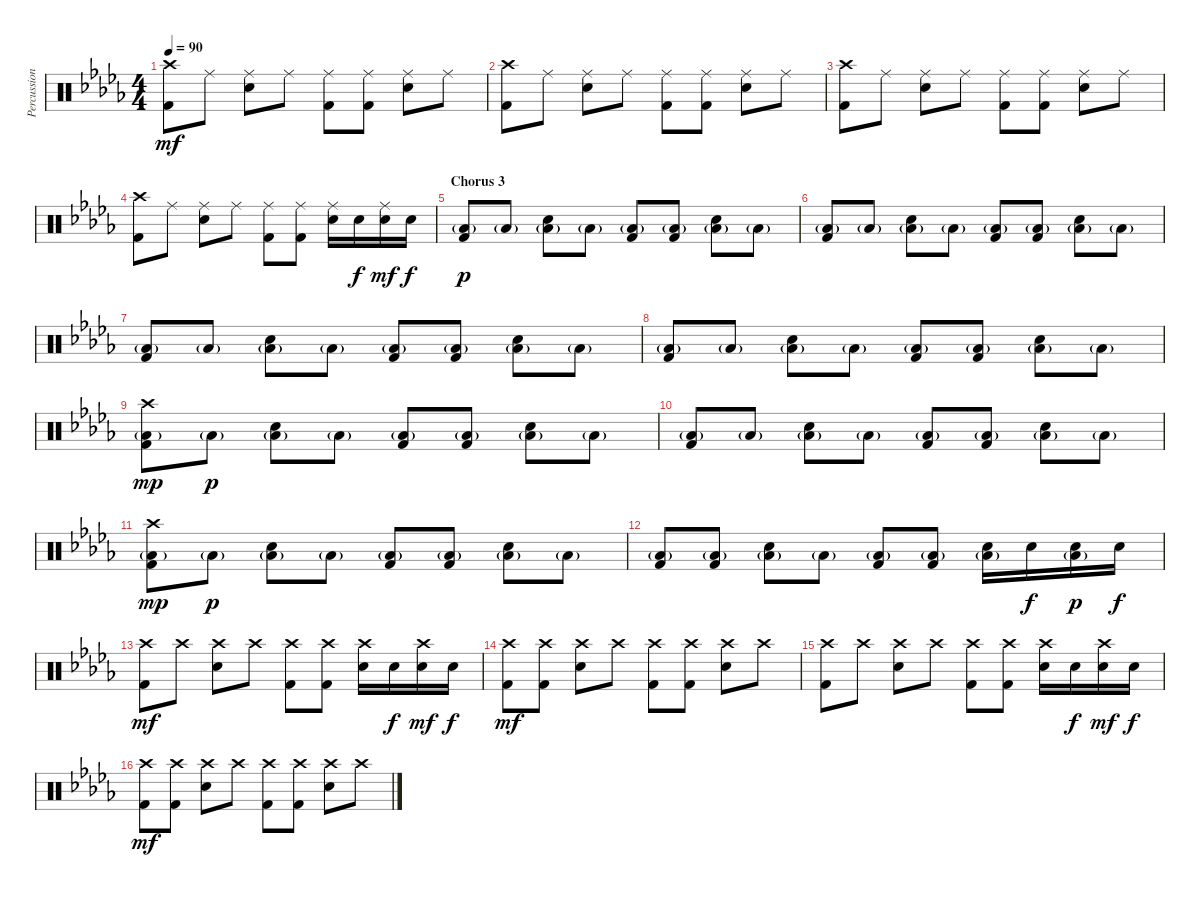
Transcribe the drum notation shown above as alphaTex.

\track ("Percussion" "Percussion") {instrument percussion}
\staff {score}
\articulation defaults
\ts (4 4)
\tempo 90
\clef neutral
\ks db
("Crash high (hit)" "Kick (hit) 2").8{dy mf} "Ride (middle)".8 ("Ride (middle)" "Snare (hit) 2").8 "Ride (middle)".8 ("Ride (middle)" "Kick (hit) 2").8 ("Ride (middle)" "Kick (hit) 2").8 ("Ride (middle)" "Snare (hit) 2").8 "Ride (middle)".8 |
("Crash high (hit)" "Kick (hit) 2").8 "Ride (middle)".8 ("Ride (middle)" "Snare (hit) 2").8 "Ride (middle)".8 ("Ride (middle)" "Kick (hit) 2").8 ("Ride (middle)" "Kick (hit) 2").8 ("Ride (middle)" "Snare (hit) 2").8 "Ride (middle)".8 |
("Crash high (hit)" "Kick (hit) 2").8 "Ride (middle)".8 ("Ride (middle)" "Snare (hit) 2").8 "Ride (middle)".8 ("Ride (middle)" "Kick (hit) 2").8 ("Ride (middle)" "Kick (hit) 2").8 ("Ride (middle)" "Snare (hit) 2").8 "Ride (middle)".8 |
("Crash high (hit)" "Kick (hit) 2").8 "Ride (middle)".8 ("Ride (middle)" "Snare (hit) 2").8 "Ride (middle)".8 ("Ride (middle)" "Kick (hit) 2").8 ("Ride (middle)" "Kick (hit) 2").8 ("Ride (middle)" "Snare (hit) 2").16 "Snare (hit) 2".16{dy f} ("Ride (middle)" "Snare (hit) 2").16{dy mf} "Snare (hit) 2".16{dy f} |
\section ("" "Chorus 3")
("Low Floor Tom (hit)"{g} "Kick (hit) 2").8{dy p} "Low Floor Tom (hit)"{g}.8 ("Low Floor Tom (hit)"{g} "Snare (hit) 2").8 "Low Floor Tom (hit)"{g}.8 ("Low Floor Tom (hit)"{g} "Kick (hit) 2").8 ("Low Floor Tom (hit)"{g} "Kick (hit) 2").8 ("Low Floor Tom (hit)"{g} "Snare (hit) 2").8 "Low Floor Tom (hit)"{g}.8 |
("Low Floor Tom (hit)"{g} "Kick (hit) 2").8 "Low Floor Tom (hit)"{g}.8 ("Low Floor Tom (hit)"{g} "Snare (hit) 2").8 "Low Floor Tom (hit)"{g}.8 ("Low Floor Tom (hit)"{g} "Kick (hit) 2").8 ("Low Floor Tom (hit)"{g} "Kick (hit) 2").8 ("Low Floor Tom (hit)"{g} "Snare (hit) 2").8 "Low Floor Tom (hit)"{g}.8 |
("Low Floor Tom (hit)"{g} "Kick (hit) 2").8 "Low Floor Tom (hit)"{g}.8 ("Low Floor Tom (hit)"{g} "Snare (hit) 2").8 "Low Floor Tom (hit)"{g}.8 ("Low Floor Tom (hit)"{g} "Kick (hit) 2").8 ("Low Floor Tom (hit)"{g} "Kick (hit) 2").8 ("Low Floor Tom (hit)"{g} "Snare (hit) 2").8 "Low Floor Tom (hit)"{g}.8 |
("Low Floor Tom (hit)"{g} "Kick (hit) 2").8 "Low Floor Tom (hit)"{g}.8 ("Low Floor Tom (hit)"{g} "Snare (hit) 2").8 "Low Floor Tom (hit)"{g}.8 ("Low Floor Tom (hit)"{g} "Kick (hit) 2").8 ("Low Floor Tom (hit)"{g} "Kick (hit) 2").8 ("Low Floor Tom (hit)"{g} "Snare (hit) 2").8 "Low Floor Tom (hit)"{g}.8 |
("Low Floor Tom (hit)"{g} "Crash high (hit)" "Kick (hit) 2").8{dy mp} "Low Floor Tom (hit)"{g}.8{dy p} ("Low Floor Tom (hit)"{g} "Snare (hit) 2").8 "Low Floor Tom (hit)"{g}.8 ("Low Floor Tom (hit)"{g} "Kick (hit) 2").8 ("Low Floor Tom (hit)"{g} "Kick (hit) 2").8 ("Low Floor Tom (hit)"{g} "Snare (hit) 2").8 "Low Floor Tom (hit)"{g}.8 |
("Low Floor Tom (hit)"{g} "Kick (hit) 2").8 "Low Floor Tom (hit)"{g}.8 ("Low Floor Tom (hit)"{g} "Snare (hit) 2").8 "Low Floor Tom (hit)"{g}.8 ("Low Floor Tom (hit)"{g} "Kick (hit) 2").8 ("Low Floor Tom (hit)"{g} "Kick (hit) 2").8 ("Low Floor Tom (hit)"{g} "Snare (hit) 2").8 "Low Floor Tom (hit)"{g}.8 |
("Low Floor Tom (hit)"{g} "Crash high (hit)" "Kick (hit) 2").8{dy mp} "Low Floor Tom (hit)"{g}.8{dy p} ("Low Floor Tom (hit)"{g} "Snare (hit) 2").8 "Low Floor Tom (hit)"{g}.8 ("Low Floor Tom (hit)"{g} "Kick (hit) 2").8 ("Low Floor Tom (hit)"{g} "Kick (hit) 2").8 ("Low Floor Tom (hit)"{g} "Snare (hit) 2").8 "Low Floor Tom (hit)"{g}.8 |
("Low Floor Tom (hit)"{g} "Kick (hit) 2").8 ("Low Floor Tom (hit)"{g} "Kick (hit) 2").8 ("Low Floor Tom (hit)"{g} "Snare (hit) 2").8 "Low Floor Tom (hit)"{g}.8 ("Low Floor Tom (hit)"{g} "Kick (hit) 2").8 ("Low Floor Tom (hit)"{g} "Kick (hit) 2").8 ("Low Floor Tom (hit)"{g} "Snare (hit) 2").16 "Snare (hit) 2".16{dy f} ("Low Floor Tom (hit)"{g} "Snare (hit) 2").16{dy p} "Snare (hit) 2".16{dy f} |
("Crash high (hit)" "Kick (hit) 2").8{dy mf} "Crash high (hit)".8 ("Crash high (hit)" "Snare (hit) 2").8 "Crash high (hit)".8 ("Crash high (hit)" "Kick (hit) 2").8 ("Crash high (hit)" "Kick (hit) 2").8 ("Crash high (hit)" "Snare (hit) 2").16 "Snare (hit) 2".16{dy f} ("Crash high (hit)" "Snare (hit) 2").16{dy mf} "Snare (hit) 2".16{dy f} |
("Crash high (hit)" "Kick (hit) 2").8{dy mf} ("Crash high (hit)" "Kick (hit) 2").8 ("Crash high (hit)" "Snare (hit) 2").8 "Crash high (hit)".8 ("Crash high (hit)" "Kick (hit) 2").8 ("Crash high (hit)" "Kick (hit) 2").8 ("Crash high (hit)" "Snare (hit) 2").8 "Crash high (hit)".8 |
("Crash high (hit)" "Kick (hit) 2").8 "Crash high (hit)".8 ("Crash high (hit)" "Snare (hit) 2").8 "Crash high (hit)".8 ("Crash high (hit)" "Kick (hit) 2").8 ("Crash high (hit)" "Kick (hit) 2").8 ("Crash high (hit)" "Snare (hit) 2").16 "Snare (hit) 2".16{dy f} ("Crash high (hit)" "Snare (hit) 2").16{dy mf} "Snare (hit) 2".16{dy f} |
("Crash high (hit)" "Kick (hit) 2").8{dy mf} ("Crash high (hit)" "Kick (hit) 2").8 ("Crash high (hit)" "Snare (hit) 2").8 "Crash high (hit)".8 ("Crash high (hit)" "Kick (hit) 2").8 ("Crash high (hit)" "Kick (hit) 2").8 ("Crash high (hit)" "Snare (hit) 2").8 "Crash high (hit)".8
